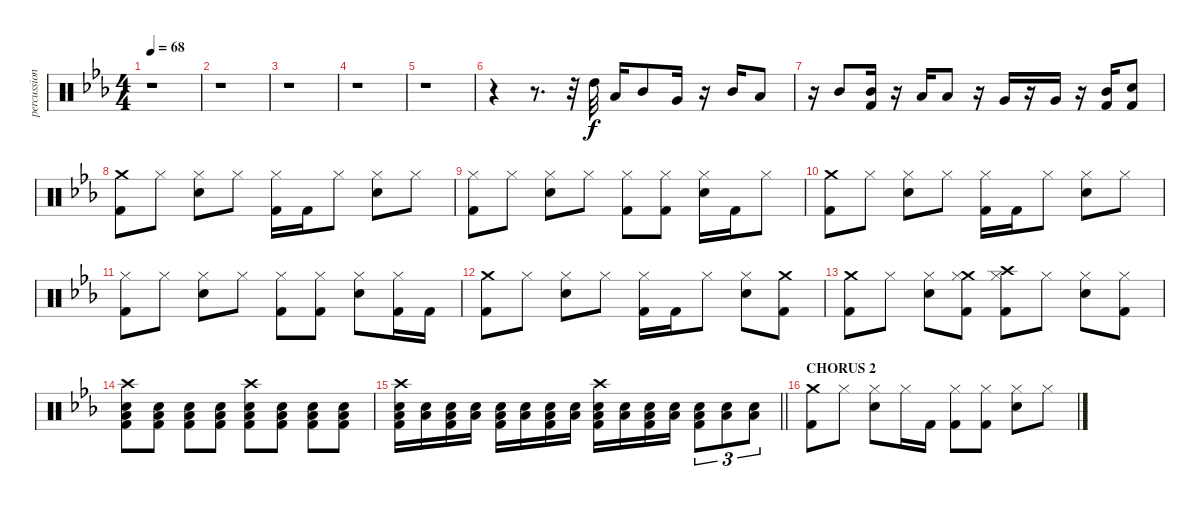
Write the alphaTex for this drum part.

\track ("percussion" "percussion") {instrument percussion}
\staff {score}
\articulation defaults
\ts (4 4)
\tempo 68
\clef neutral
\ks cminor
r.1{dy f} |
r.1 |
r.1 |
r.1 |
r.1 |
r.4 r.8{d} r.32 "High Tom (hit)".32 "Low Tom (hit)".16 "Mid Tom (hit)".8 "Very Low Tom (hit)".16 r.16 "Mid Tom (hit)".16 "Low Tom (hit)".8 |
r.16 "Mid Tom (hit)".8 ("Mid Tom (hit)" "Kick (hit) 2").16 r.16 "Low Tom (hit)".16 "Low Tom (hit)".8 r.16 "Very Low Tom (hit)".16 r.16 "Very Low Tom (hit)".16 r.16 ("Mid Tom (hit)" "Kick (hit) 2").16 ("Snare (hit) 2" "Kick (hit) 2").8 |
("Crash medium (hit)" "Kick (hit) 2").8 "Hi-Hat (closed)".8 ("Snare (hit) 2" "Hi-Hat (closed)").8 "Hi-Hat (closed)".8 ("Hi-Hat (closed)" "Kick (hit) 2").16 "Kick (hit) 2".16 "Hi-Hat (closed)".8 ("Snare (hit) 2" "Hi-Hat (closed)").8 "Hi-Hat (closed)".8 |
("Hi-Hat (closed)" "Kick (hit) 2").8 "Hi-Hat (closed)".8 ("Snare (hit) 2" "Hi-Hat (closed)").8 "Hi-Hat (closed)".8 ("Hi-Hat (closed)" "Kick (hit) 2").8 ("Hi-Hat (closed)" "Kick (hit) 2").8 ("Snare (hit) 2" "Hi-Hat (closed)").16 "Kick (hit) 2".16 "Hi-Hat (closed)".8 |
("Crash medium (hit)" "Kick (hit) 2").8 "Hi-Hat (closed)".8 ("Snare (hit) 2" "Hi-Hat (closed)").8 "Hi-Hat (closed)".8 ("Hi-Hat (closed)" "Kick (hit) 2").16 "Kick (hit) 2".16 "Hi-Hat (closed)".8 ("Snare (hit) 2" "Hi-Hat (closed)").8 "Hi-Hat (closed)".8 |
("Hi-Hat (closed)" "Kick (hit) 2").8 "Hi-Hat (closed)".8 ("Snare (hit) 2" "Hi-Hat (closed)").8 "Hi-Hat (closed)".8 ("Hi-Hat (closed)" "Kick (hit) 2").8 ("Hi-Hat (closed)" "Kick (hit) 2").8 ("Snare (hit) 2" "Hi-Hat (closed)").8 ("Hi-Hat (closed)" "Kick (hit) 2").16 "Kick (hit) 2".16 |
("Crash medium (hit)" "Kick (hit) 2").8 "Hi-Hat (closed)".8 ("Snare (hit) 2" "Hi-Hat (closed)").8 "Hi-Hat (closed)".8 ("Hi-Hat (closed)" "Kick (hit) 2").16 "Kick (hit) 2".16 "Hi-Hat (closed)".8 ("Snare (hit) 2" "Hi-Hat (closed)").8 ("Crash medium (hit)" "Kick (hit) 2").8 |
("Crash medium (hit)" "Kick (hit) 2").8 "Hi-Hat (closed)".8 ("Snare (hit) 2" "Hi-Hat (closed)").8 ("Crash medium (hit)" "Hi-Hat (closed)" "Kick (hit) 2").8 ("Crash high (hit)" "Hi-Hat (closed)" "Kick (hit) 2").8 "Hi-Hat (closed)".8 ("Snare (hit) 2" "Hi-Hat (closed)").8 ("Hi-Hat (closed)" "Kick (hit) 2").8 |
("Crash high (hit)" "Low Tom (hit)" "Snare (hit) 2" "Kick (hit) 2").8 ("Low Tom (hit)" "Snare (hit) 2" "Kick (hit) 2").8 ("Low Tom (hit)" "Snare (hit) 2" "Kick (hit) 2").8 ("Low Tom (hit)" "Snare (hit) 2" "Kick (hit) 2").8 ("Crash high (hit)" "Low Tom (hit)" "Snare (hit) 2" "Kick (hit) 2").8 ("Low Tom (hit)" "Snare (hit) 2" "Kick (hit) 2").8 ("Low Tom (hit)" "Snare (hit) 2" "Kick (hit) 2").8 ("Low Tom (hit)" "Snare (hit) 2" "Kick (hit) 2").8 |
\barLineRight lightlight
("Crash high (hit)" "Low Tom (hit)" "Snare (hit) 2" "Kick (hit) 2").16 ("Low Tom (hit)" "Snare (hit) 2").16 ("Low Tom (hit)" "Snare (hit) 2" "Kick (hit) 2").16 ("Low Tom (hit)" "Snare (hit) 2").16 ("Low Tom (hit)" "Snare (hit) 2" "Kick (hit) 2").16 ("Low Tom (hit)" "Snare (hit) 2").16 ("Low Tom (hit)" "Snare (hit) 2" "Kick (hit) 2").16 ("Low Tom (hit)" "Snare (hit) 2").16 ("Crash high (hit)" "Low Tom (hit)" "Snare (hit) 2" "Kick (hit) 2").16 ("Low Tom (hit)" "Snare (hit) 2").16 ("Low Tom (hit)" "Snare (hit) 2" "Kick (hit) 2").16 ("Low Tom (hit)" "Snare (hit) 2").16 ("Low Tom (hit)" "Snare (hit) 2" "Kick (hit) 2").8{tu (3 2)} ("Low Tom (hit)" "Snare (hit) 2").8{tu (3 2)} ("Low Tom (hit)" "Snare (hit) 2").8{tu (3 2)} |
\section ("" "CHORUS 2")
("Crash medium (hit)" "Kick (hit) 2").8 "Hi-Hat (closed)".8 ("Snare (hit) 2" "Hi-Hat (closed)").8 "Hi-Hat (closed)".16 "Kick (hit) 2".16 ("Hi-Hat (closed)" "Kick (hit) 2").8 ("Hi-Hat (closed)" "Kick (hit) 2").8 ("Snare (hit) 2" "Hi-Hat (closed)").8 "Hi-Hat (closed)".8
